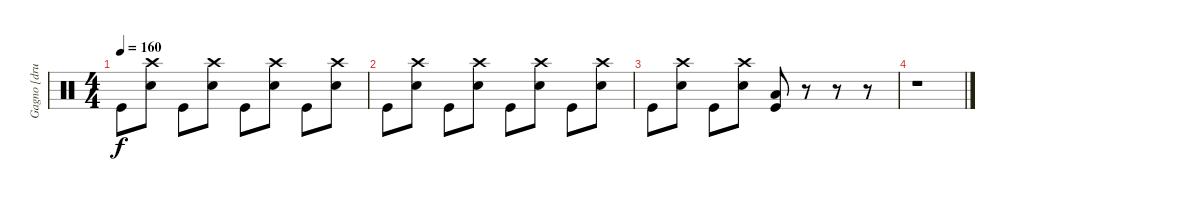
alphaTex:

\track ("Gagno [drums]" "Gagno [dru") {instrument percussion}
\staff {score}
\articulation defaults
\ts (4 4)
\tempo 160
\clef neutral
\ks c "Kick (hit)".8{dy f}
("Crash high (hit)" "Snare (hit) 2").8 "Kick (hit)".8 ("Crash high (hit)" "Snare (hit) 2").8 "Kick (hit)".8 ("Crash high (hit)" "Snare (hit) 2").8 "Kick (hit)".8 ("Crash high (hit)" "Snare (hit) 2").8 |
"Kick (hit)".8 ("Crash high (hit)" "Snare (hit) 2").8 "Kick (hit)".8 ("Crash high (hit)" "Snare (hit) 2").8 "Kick (hit)".8 ("Crash high (hit)" "Snare (hit) 2").8 "Kick (hit)".8 ("Crash high (hit)" "Snare (hit) 2").8 |
"Kick (hit)".8 ("Crash high (hit)" "Snare (hit) 2").8 "Kick (hit)".8 ("Crash high (hit)" "Snare (hit) 2").8 ("Low Tom (hit)" "Kick (hit)").8 r.8 r.8 r.8 |
r.1
